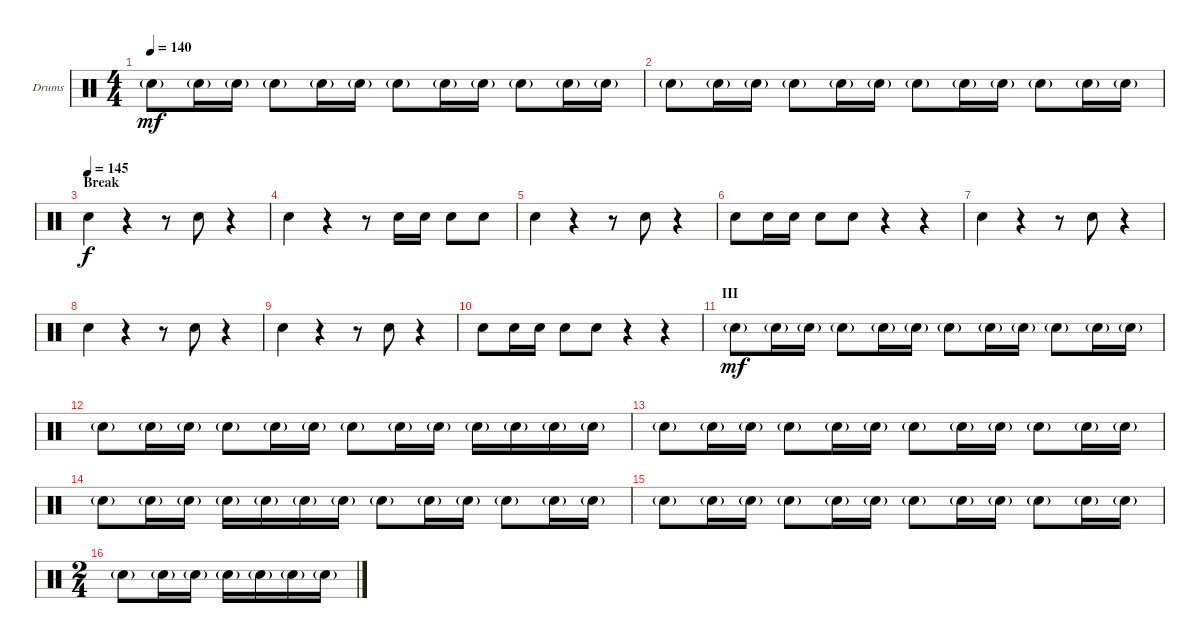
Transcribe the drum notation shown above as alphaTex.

\defaultSystemsLayout 4
\bracketExtendMode groupsimilarinstruments
\firstSystemTrackNameOrientation horizontal
\otherSystemsTrackNameOrientation horizontal
\track ("Drums" "Drums") {instrument percussion}
\staff {score}
\articulation defaults
\ts (4 4)
\tempo 140
\clef neutral
\ks c "Snare (hit) 2"{g}.8{dy mf} "Snare (hit) 2"{g}.16 "Snare (hit) 2"{g}.16 "Snare (hit) 2"{g}.8 "Snare (hit) 2"{g}.16 "Snare (hit) 2"{g}.16 "Snare (hit) 2"{g}.8 "Snare (hit) 2"{g}.16 "Snare (hit) 2"{g}.16 "Snare (hit) 2"{g}.8 "Snare (hit) 2"{g}.16 "Snare (hit) 2"{g}.16
|
"Snare (hit) 2"{g}.8 "Snare (hit) 2"{g}.16 "Snare (hit) 2"{g}.16 "Snare (hit) 2"{g}.8 "Snare (hit) 2"{g}.16 "Snare (hit) 2"{g}.16 "Snare (hit) 2"{g}.8 "Snare (hit) 2"{g}.16 "Snare (hit) 2"{g}.16 "Snare (hit) 2"{g}.8 "Snare (hit) 2"{g}.16 "Snare (hit) 2"{g}.16 |
\section ("" "Break")
\tempo (145)
"Snare (hit) 2".4{dy f} r.4 r.8 "Snare (hit) 2".8 r.4 |
"Snare (hit) 2".4 r.4 r.8 "Snare (hit) 2".16 "Snare (hit) 2".16 "Snare (hit) 2".8 "Snare (hit) 2".8 |
"Snare (hit) 2".4 r.4 r.8 "Snare (hit) 2".8 r.4 |
"Snare (hit) 2".8 "Snare (hit) 2".16 "Snare (hit) 2".16 "Snare (hit) 2".8 "Snare (hit) 2".8 r.4 r.4 |
"Snare (hit) 2".4 r.4 r.8 "Snare (hit) 2".8 r.4 |
"Snare (hit) 2".4 r.4 r.8 "Snare (hit) 2".8 r.4 |
"Snare (hit) 2".4 r.4 r.8 "Snare (hit) 2".8 r.4 |
"Snare (hit) 2".8 "Snare (hit) 2".16 "Snare (hit) 2".16 "Snare (hit) 2".8 "Snare (hit) 2".8 r.4 r.4 |
\section ("" "III")
"Snare (hit) 2"{g}.8{dy mf} "Snare (hit) 2"{g}.16 "Snare (hit) 2"{g}.16 "Snare (hit) 2"{g}.8 "Snare (hit) 2"{g}.16 "Snare (hit) 2"{g}.16 "Snare (hit) 2"{g}.8 "Snare (hit) 2"{g}.16 "Snare (hit) 2"{g}.16 "Snare (hit) 2"{g}.8 "Snare (hit) 2"{g}.16 "Snare (hit) 2"{g}.16 |
"Snare (hit) 2"{g}.8 "Snare (hit) 2"{g}.16 "Snare (hit) 2"{g}.16 "Snare (hit) 2"{g}.8 "Snare (hit) 2"{g}.16 "Snare (hit) 2"{g}.16 "Snare (hit) 2"{g}.8 "Snare (hit) 2"{g}.16 "Snare (hit) 2"{g}.16 "Snare (hit) 2"{g}.16 "Snare (hit) 2"{g}.16 "Snare (hit) 2"{g}.16 "Snare (hit) 2"{g}.16 |
"Snare (hit) 2"{g}.8 "Snare (hit) 2"{g}.16 "Snare (hit) 2"{g}.16 "Snare (hit) 2"{g}.8 "Snare (hit) 2"{g}.16 "Snare (hit) 2"{g}.16 "Snare (hit) 2"{g}.8 "Snare (hit) 2"{g}.16 "Snare (hit) 2"{g}.16 "Snare (hit) 2"{g}.8 "Snare (hit) 2"{g}.16 "Snare (hit) 2"{g}.16 |
"Snare (hit) 2"{g}.8 "Snare (hit) 2"{g}.16 "Snare (hit) 2"{g}.16 "Snare (hit) 2"{g}.16 "Snare (hit) 2"{g}.16 "Snare (hit) 2"{g}.16 "Snare (hit) 2"{g}.16 "Snare (hit) 2"{g}.8 "Snare (hit) 2"{g}.16 "Snare (hit) 2"{g}.16 "Snare (hit) 2"{g}.8 "Snare (hit) 2"{g}.16 "Snare (hit) 2"{g}.16 |
"Snare (hit) 2"{g}.8 "Snare (hit) 2"{g}.16 "Snare (hit) 2"{g}.16 "Snare (hit) 2"{g}.8 "Snare (hit) 2"{g}.16 "Snare (hit) 2"{g}.16 "Snare (hit) 2"{g}.8 "Snare (hit) 2"{g}.16 "Snare (hit) 2"{g}.16 "Snare (hit) 2"{g}.8 "Snare (hit) 2"{g}.16 "Snare (hit) 2"{g}.16 |
\ts (2 4)
"Snare (hit) 2"{g}.8 "Snare (hit) 2"{g}.16 "Snare (hit) 2"{g}.16 "Snare (hit) 2"{g}.16 "Snare (hit) 2"{g}.16 "Snare (hit) 2"{g}.16 "Snare (hit) 2"{g}.16
